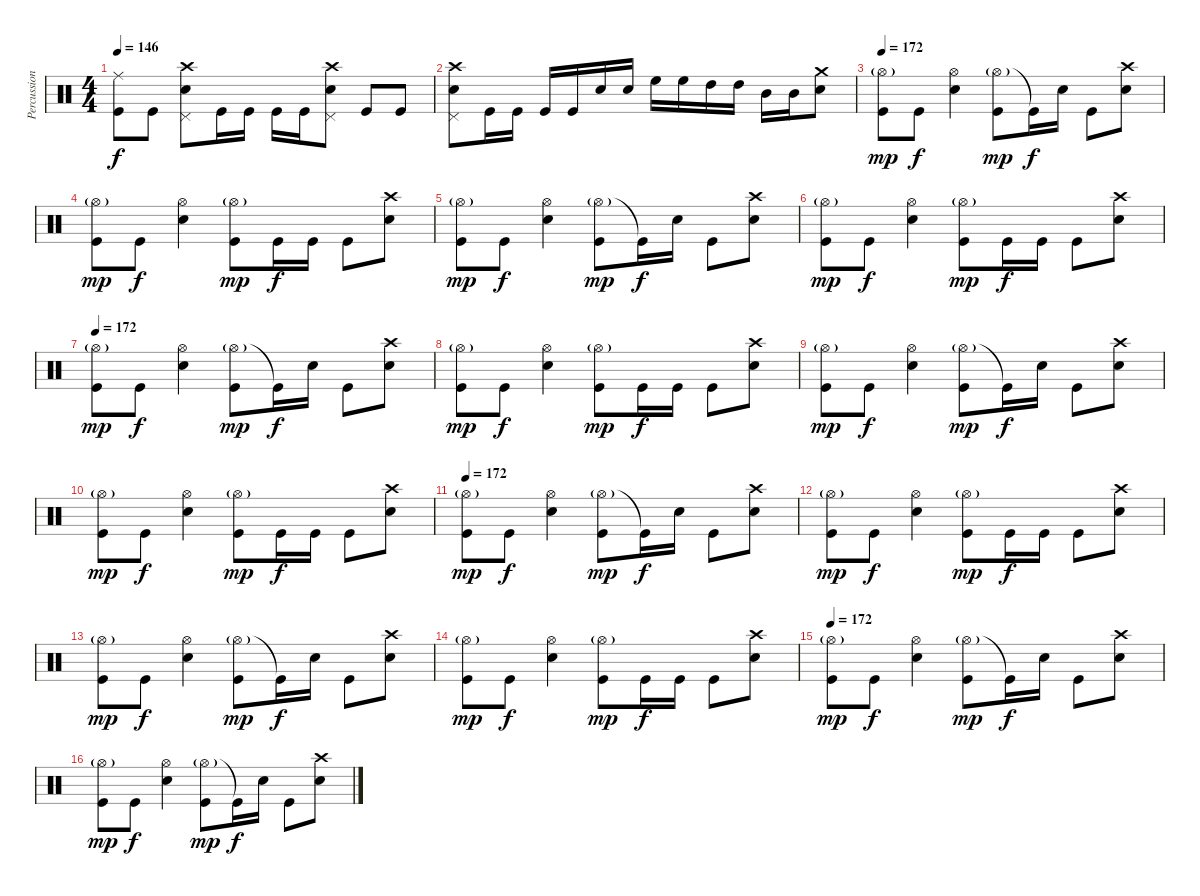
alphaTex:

\track ("Percussion" "Percussion") {instrument percussion}
\staff {score}
\articulation defaults
\ts (4 4)
\tempo 146
\clef neutral
\ks c
("Ride (middle)" "Kick (hit)").8{dy f} "Kick (hit)".8 ("Crash high (hit)" "Pedal Hi-Hat (hit)" "Snare (hit) 2").8 "Kick (hit)".16 "Kick (hit)".16 "Kick (hit)".16 "Kick (hit)".16 ("Crash high (hit)" "Pedal Hi-Hat (hit)" "Snare (hit) 2").8 "Kick (hit)".8 "Kick (hit)".8 |
("Crash high (hit)" "Pedal Hi-Hat (hit)" "Snare (hit) 2").8 "Kick (hit)".16 "Kick (hit)".16 "Kick (hit)".16 "Kick (hit)".16 "Snare (hit) 2".16 "Snare (hit) 2".16 "High Floor Tom (hit)".16 "High Floor Tom (hit)".16 "High Tom (hit)".16 "High Tom (hit)".16 "Mid Tom (hit)".16 "Mid Tom (hit)".16 ("Crash medium (hit)" "Snare (hit) 2").8 |
\tempo 172
("Hi-Hat (open)"{g} "Kick (hit)").8{dy mp} "Kick (hit)".8{dy f} ("Hi-Hat (open)" "Snare (hit) 2").4 ("Hi-Hat (open)"{g} "Kick (hit)").8{dy mp} "Kick (hit)"{t}.16{dy f} "Snare (hit) 2".16 "Kick (hit)".8 ("Crash high (hit)" "Snare (hit) 2").8 |
("Hi-Hat (open)"{g} "Kick (hit)").8{dy mp} "Kick (hit)".8{dy f} ("Hi-Hat (open)" "Snare (hit) 2").4 ("Hi-Hat (open)"{g} "Kick (hit)").8{dy mp} "Kick (hit)".16{dy f} "Kick (hit)".16 "Kick (hit)".8 ("Crash high (hit)" "Snare (hit) 2").8 |
("Hi-Hat (open)"{g} "Kick (hit)").8{dy mp} "Kick (hit)".8{dy f} ("Hi-Hat (open)" "Snare (hit) 2").4 ("Hi-Hat (open)"{g} "Kick (hit)").8{dy mp} "Kick (hit)"{t}.16{dy f} "Snare (hit) 2".16 "Kick (hit)".8 ("Crash high (hit)" "Snare (hit) 2").8 |
("Hi-Hat (open)"{g} "Kick (hit)").8{dy mp} "Kick (hit)".8{dy f} ("Hi-Hat (open)" "Snare (hit) 2").4 ("Hi-Hat (open)"{g} "Kick (hit)").8{dy mp} "Kick (hit)".16{dy f} "Kick (hit)".16 "Kick (hit)".8 ("Crash high (hit)" "Snare (hit) 2").8 |
\tempo 172
("Hi-Hat (open)"{g} "Kick (hit)").8{dy mp} "Kick (hit)".8{dy f} ("Hi-Hat (open)" "Snare (hit) 2").4 ("Hi-Hat (open)"{g} "Kick (hit)").8{dy mp} "Kick (hit)"{t}.16{dy f} "Snare (hit) 2".16 "Kick (hit)".8 ("Crash high (hit)" "Snare (hit) 2").8 |
("Hi-Hat (open)"{g} "Kick (hit)").8{dy mp} "Kick (hit)".8{dy f} ("Hi-Hat (open)" "Snare (hit) 2").4 ("Hi-Hat (open)"{g} "Kick (hit)").8{dy mp} "Kick (hit)".16{dy f} "Kick (hit)".16 "Kick (hit)".8 ("Crash high (hit)" "Snare (hit) 2").8 |
("Hi-Hat (open)"{g} "Kick (hit)").8{dy mp} "Kick (hit)".8{dy f} ("Hi-Hat (open)" "Snare (hit) 2").4 ("Hi-Hat (open)"{g} "Kick (hit)").8{dy mp} "Kick (hit)"{t}.16{dy f} "Snare (hit) 2".16 "Kick (hit)".8 ("Crash high (hit)" "Snare (hit) 2").8 |
("Hi-Hat (open)"{g} "Kick (hit)").8{dy mp} "Kick (hit)".8{dy f} ("Hi-Hat (open)" "Snare (hit) 2").4 ("Hi-Hat (open)"{g} "Kick (hit)").8{dy mp} "Kick (hit)".16{dy f} "Kick (hit)".16 "Kick (hit)".8 ("Crash high (hit)" "Snare (hit) 2").8 |
\tempo 172
("Hi-Hat (open)"{g} "Kick (hit)").8{dy mp} "Kick (hit)".8{dy f} ("Hi-Hat (open)" "Snare (hit) 2").4 ("Hi-Hat (open)"{g} "Kick (hit)").8{dy mp} "Kick (hit)"{t}.16{dy f} "Snare (hit) 2".16 "Kick (hit)".8 ("Crash high (hit)" "Snare (hit) 2").8 |
("Hi-Hat (open)"{g} "Kick (hit)").8{dy mp} "Kick (hit)".8{dy f} ("Hi-Hat (open)" "Snare (hit) 2").4 ("Hi-Hat (open)"{g} "Kick (hit)").8{dy mp} "Kick (hit)".16{dy f} "Kick (hit)".16 "Kick (hit)".8 ("Crash high (hit)" "Snare (hit) 2").8 |
("Hi-Hat (open)"{g} "Kick (hit)").8{dy mp} "Kick (hit)".8{dy f} ("Hi-Hat (open)" "Snare (hit) 2").4 ("Hi-Hat (open)"{g} "Kick (hit)").8{dy mp} "Kick (hit)"{t}.16{dy f} "Snare (hit) 2".16 "Kick (hit)".8 ("Crash high (hit)" "Snare (hit) 2").8 |
("Hi-Hat (open)"{g} "Kick (hit)").8{dy mp} "Kick (hit)".8{dy f} ("Hi-Hat (open)" "Snare (hit) 2").4 ("Hi-Hat (open)"{g} "Kick (hit)").8{dy mp} "Kick (hit)".16{dy f} "Kick (hit)".16 "Kick (hit)".8 ("Crash high (hit)" "Snare (hit) 2").8 |
\tempo 172
("Hi-Hat (open)"{g} "Kick (hit)").8{dy mp} "Kick (hit)".8{dy f} ("Hi-Hat (open)" "Snare (hit) 2").4 ("Hi-Hat (open)"{g} "Kick (hit)").8{dy mp} "Kick (hit)"{t}.16{dy f} "Snare (hit) 2".16 "Kick (hit)".8 ("Crash high (hit)" "Snare (hit) 2").8 |
("Hi-Hat (open)"{g} "Kick (hit)").8{dy mp} "Kick (hit)".8{dy f} ("Hi-Hat (open)" "Snare (hit) 2").4 ("Hi-Hat (open)"{g} "Kick (hit)").8{dy mp} "Kick (hit)"{t}.16{dy f} "Snare (hit) 2".16 "Kick (hit)".8 ("Crash high (hit)" "Snare (hit) 2").8
